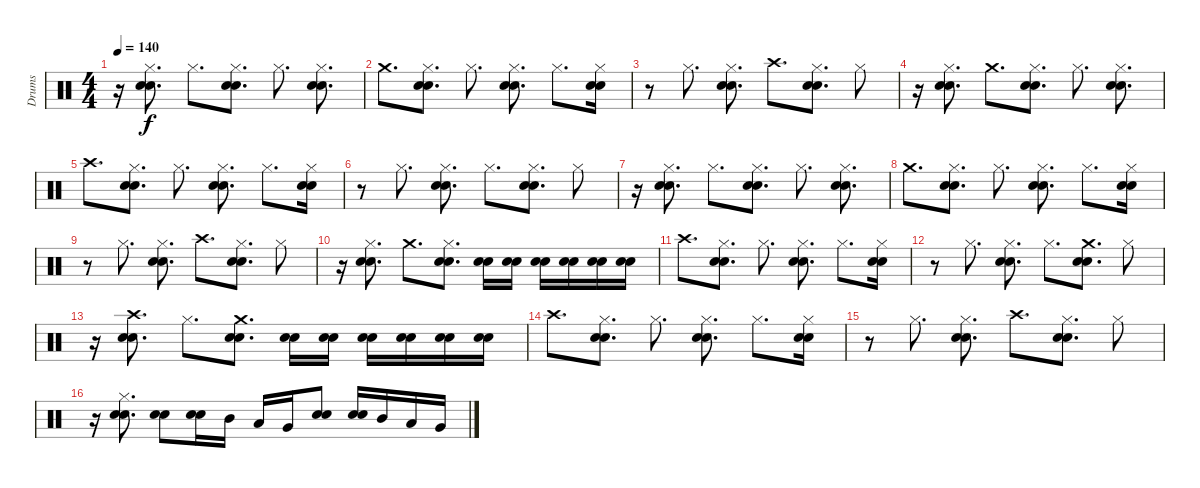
\track ("Drums" "Drums") {instrument percussion}
\staff {score}
\articulation defaults
\ts (4 4)
\tempo 140
\clef neutral
\ks c
r.16{dy f} ("Hi-Hat (closed)" "Electric Snare (hit)" "Snare (hit) 2").8{d} "Hi-Hat (closed)".8{d} ("Hi-Hat (closed)" "Electric Snare (hit)" "Snare (hit) 2").8{d} "Hi-Hat (closed)".8{d} ("Hi-Hat (closed)" "Electric Snare (hit)" "Snare (hit) 2").8{d} |
"Crash medium (hit)".8{d} ("Hi-Hat (closed)" "Electric Snare (hit)" "Snare (hit) 2").8{d} "Hi-Hat (closed)".8{d} ("Hi-Hat (closed)" "Electric Snare (hit)" "Snare (hit) 2").8{d} "Hi-Hat (closed)".8{d} ("Hi-Hat (closed)" "Electric Snare (hit)" "Snare (hit) 2").16 |
r.8 "Hi-Hat (closed)".8{d} ("Hi-Hat (closed)" "Electric Snare (hit)" "Snare (hit) 2").8{d} "Crash high (hit)".8{d} ("Hi-Hat (closed)" "Electric Snare (hit)" "Snare (hit) 2").8{d} "Hi-Hat (closed)".8 |
r.16 ("Hi-Hat (closed)" "Electric Snare (hit)" "Snare (hit) 2").8{d} "Crash medium (hit)".8{d} ("Hi-Hat (closed)" "Electric Snare (hit)" "Snare (hit) 2").8{d} "Hi-Hat (closed)".8{d} ("Hi-Hat (closed)" "Electric Snare (hit)" "Snare (hit) 2").8{d} |
"Crash high (hit)".8{d} ("Hi-Hat (closed)" "Electric Snare (hit)" "Snare (hit) 2").8{d} "Hi-Hat (closed)".8{d} ("Hi-Hat (closed)" "Electric Snare (hit)" "Snare (hit) 2").8{d} "Hi-Hat (closed)".8{d} ("Hi-Hat (closed)" "Electric Snare (hit)" "Snare (hit) 2").16 |
r.8 "Hi-Hat (closed)".8{d} ("Hi-Hat (closed)" "Electric Snare (hit)" "Snare (hit) 2").8{d} "Hi-Hat (closed)".8{d} ("Hi-Hat (closed)" "Electric Snare (hit)" "Snare (hit) 2").8{d} "Hi-Hat (closed)".8 |
r.16 ("Hi-Hat (closed)" "Electric Snare (hit)" "Snare (hit) 2").8{d} "Hi-Hat (closed)".8{d} ("Hi-Hat (closed)" "Electric Snare (hit)" "Snare (hit) 2").8{d} "Hi-Hat (closed)".8{d} ("Hi-Hat (closed)" "Electric Snare (hit)" "Snare (hit) 2").8{d} |
"Crash medium (hit)".8{d} ("Hi-Hat (closed)" "Electric Snare (hit)" "Snare (hit) 2").8{d} "Hi-Hat (closed)".8{d} ("Hi-Hat (closed)" "Electric Snare (hit)" "Snare (hit) 2").8{d} "Hi-Hat (closed)".8{d} ("Hi-Hat (closed)" "Electric Snare (hit)" "Snare (hit) 2").16 |
r.8 "Hi-Hat (closed)".8{d} ("Hi-Hat (closed)" "Electric Snare (hit)" "Snare (hit) 2").8{d} "Crash high (hit)".8{d} ("Hi-Hat (closed)" "Electric Snare (hit)" "Snare (hit) 2").8{d} "Hi-Hat (closed)".8 |
r.16 ("Hi-Hat (closed)" "Electric Snare (hit)" "Snare (hit) 2").8{d} "Crash medium (hit)".8{d} ("Hi-Hat (closed)" "Electric Snare (hit)" "Snare (hit) 2").8{d} ("Electric Snare (hit)" "Snare (hit) 2").16 ("Electric Snare (hit)" "Snare (hit) 2").16 ("Electric Snare (hit)" "Snare (hit) 2").16 ("Electric Snare (hit)" "Snare (hit) 2").16 ("Electric Snare (hit)" "Snare (hit) 2").16 ("Electric Snare (hit)" "Snare (hit) 2").16 |
"Crash high (hit)".8{d} ("Hi-Hat (closed)" "Electric Snare (hit)" "Snare (hit) 2").8{d} "Hi-Hat (closed)".8{d} ("Hi-Hat (closed)" "Electric Snare (hit)" "Snare (hit) 2").8{d} "Hi-Hat (closed)".8{d} ("Hi-Hat (closed)" "Electric Snare (hit)" "Snare (hit) 2").16 |
r.8 "Hi-Hat (closed)".8{d} ("Hi-Hat (closed)" "Electric Snare (hit)" "Snare (hit) 2").8{d} "Hi-Hat (closed)".8{d} ("Crash medium (hit)" "Electric Snare (hit)" "Snare (hit) 2").8{d} "Hi-Hat (closed)".8 |
r.16 ("Crash high (hit)" "Electric Snare (hit)" "Snare (hit) 2").8{d} "Hi-Hat (closed)".8{d} ("Crash medium (hit)" "Electric Snare (hit)" "Snare (hit) 2").8{d} ("Electric Snare (hit)" "Snare (hit) 2").16 ("Electric Snare (hit)" "Snare (hit) 2").16 ("Electric Snare (hit)" "Snare (hit) 2").16 ("Electric Snare (hit)" "Snare (hit) 2").16 ("Electric Snare (hit)" "Snare (hit) 2").16 ("Electric Snare (hit)" "Snare (hit) 2").16 |
"Crash high (hit)".8{d} ("Hi-Hat (closed)" "Electric Snare (hit)" "Snare (hit) 2").8{d} "Hi-Hat (closed)".8{d} ("Hi-Hat (closed)" "Electric Snare (hit)" "Snare (hit) 2").8{d} "Hi-Hat (closed)".8{d} ("Hi-Hat (closed)" "Electric Snare (hit)" "Snare (hit) 2").16 |
r.8 "Hi-Hat (closed)".8{d} ("Hi-Hat (closed)" "Electric Snare (hit)" "Snare (hit) 2").8{d} "Crash high (hit)".8{d} ("Hi-Hat (closed)" "Electric Snare (hit)" "Snare (hit) 2").8{d} "Hi-Hat (closed)".8 |
r.16 ("Hi-Hat (closed)" "Electric Snare (hit)" "Snare (hit) 2").8{d} ("Snare (hit) 2" "Electric Snare (hit)").8{bd 60} ("Electric Snare (hit)" "Snare (hit) 2").16 "Mid Tom (hit)".16 "Low Tom (hit)".16 "Very Low Tom (hit)".16 ("Snare (hit) 2" "Electric Snare (hit)").8{bd 60} ("Electric Snare (hit)" "Snare (hit) 2").16 "Mid Tom (hit)".16 "Low Tom (hit)".16 "Very Low Tom (hit)".16
